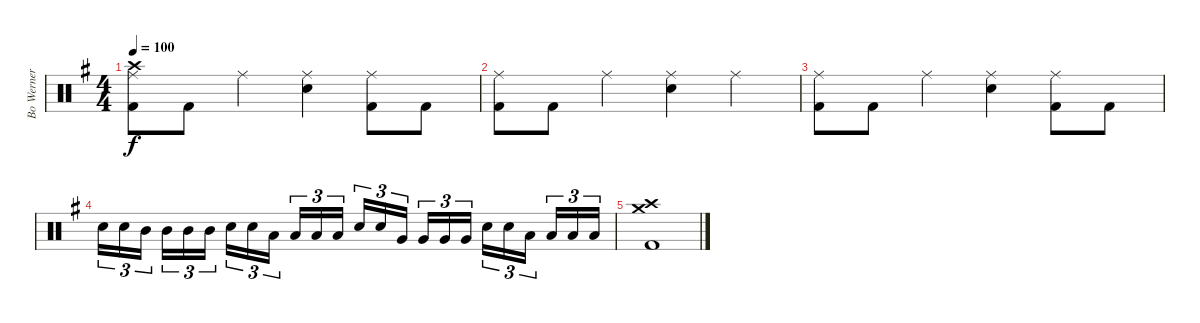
\track ("Bo Werner" "Bo Werner") {instrument percussion}
\staff {score}
\articulation defaults
\ts (4 4)
\tempo 100
\clef neutral
\ks g
("Crash high (hit)" "Ride (middle)" "Kick (hit) 2").8{dy f} "Kick (hit) 2".8 "Ride (middle)".4 ("Ride (middle)" "Snare (hit) 2").4 ("Ride (middle)" "Kick (hit) 2").8 "Kick (hit) 2".8 |
("Ride (middle)" "Kick (hit) 2").8 "Kick (hit) 2".8 "Ride (middle)".4 ("Ride (middle)" "Snare (hit) 2").4 "Ride (middle)".4 |
("Ride (middle)" "Kick (hit) 2").8 "Kick (hit) 2".8 "Ride (middle)".4 ("Ride (middle)" "Snare (hit) 2").4 ("Ride (middle)" "Kick (hit) 2").8 "Kick (hit) 2".8 |
"Snare (hit) 2".16{tu (3 2)} "Snare (hit) 2".16{tu (3 2)} "Mid Tom (hit)".16{tu (3 2) beam splitsecondary} "Mid Tom (hit)".16{tu (3 2)} "Mid Tom (hit)".16{tu (3 2)} "Mid Tom (hit)".16{tu (3 2)} "Snare (hit) 2".16{tu (3 2)} "Snare (hit) 2".16{tu (3 2)} "Low Tom (hit)".16{tu (3 2) beam splitsecondary} "Low Tom (hit)".16{tu (3 2)} "Low Tom (hit)".16{tu (3 2)} "Low Tom (hit)".16{tu (3 2)} "Snare (hit) 2".16{tu (3 2)} "Snare (hit) 2".16{tu (3 2)} "Very Low Tom (hit)".16{tu (3 2) beam splitsecondary} "Very Low Tom (hit)".16{tu (3 2)} "Very Low Tom (hit)".16{tu (3 2)} "Very Low Tom (hit)".16{tu (3 2)} "Snare (hit) 2".16{tu (3 2)} "Snare (hit) 2".16{tu (3 2)} "Low Floor Tom (hit)".16{tu (3 2) beam splitsecondary} "Low Floor Tom (hit)".16{tu (3 2)} "Low Floor Tom (hit)".16{tu (3 2)} "Low Floor Tom (hit)".16{tu (3 2)} |
("Crash high (hit)" "Crash medium (hit)" "Kick (hit) 2").1
